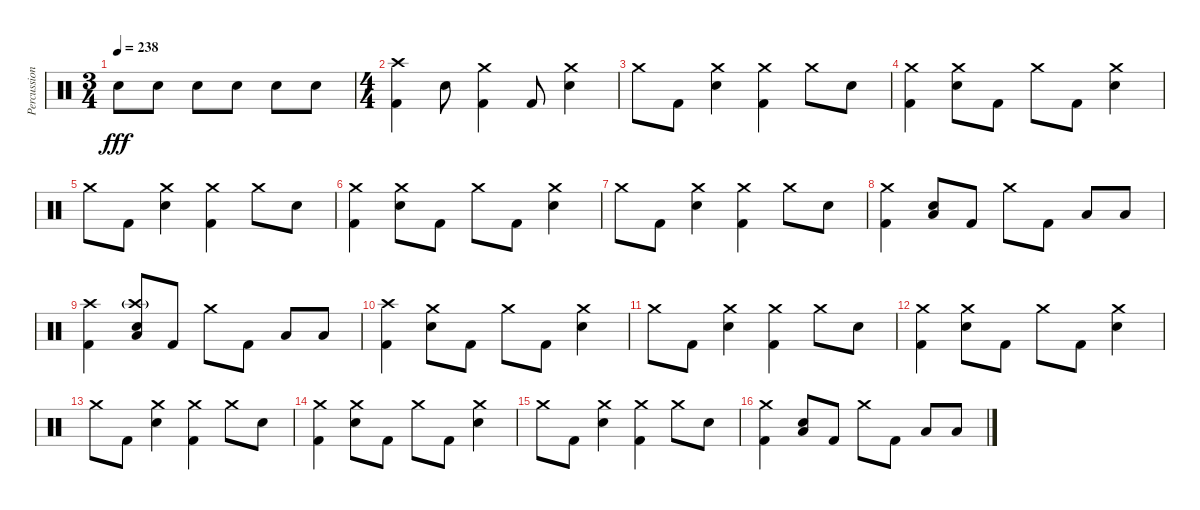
\track ("Percussion" "Percussion") {instrument percussion}
\staff {score}
\articulation defaults
\ts (3 4)
\tempo 238
\clef neutral
\ks c "Electric Snare (hit)".8{dy fff} "Electric Snare (hit)".8 "Electric Snare (hit)".8 "Electric Snare (hit)".8 "Electric Snare (hit)".8 "Electric Snare (hit)".8
|
\ts (4 4)
("Crash high (hit)" "Kick (hit) 2").4 "Electric Snare (hit)".8 ("Crash medium (hit)" "Kick (hit) 2").4 "Kick (hit) 2".8 ("Crash medium (hit)" "Electric Snare (hit)").4 |
"Crash medium (hit)".8 "Kick (hit) 2".8 ("Crash medium (hit)" "Electric Snare (hit)").4 ("Crash medium (hit)" "Kick (hit) 2").4 "Crash medium (hit)".8 "Electric Snare (hit)".8 |
("Crash medium (hit)" "Kick (hit) 2").4 ("Crash medium (hit)" "Electric Snare (hit)").8 "Kick (hit) 2".8 "Crash medium (hit)".8 "Kick (hit) 2".8 ("Crash medium (hit)" "Electric Snare (hit)").4 |
"Crash medium (hit)".8 "Kick (hit) 2".8 ("Crash medium (hit)" "Electric Snare (hit)").4 ("Crash medium (hit)" "Kick (hit) 2").4 "Crash medium (hit)".8 "Electric Snare (hit)".8 |
("Crash medium (hit)" "Kick (hit) 2").4 ("Crash medium (hit)" "Electric Snare (hit)").8 "Kick (hit) 2".8 "Crash medium (hit)".8 "Kick (hit) 2".8 ("Crash medium (hit)" "Electric Snare (hit)").4 |
"Crash medium (hit)".8 "Kick (hit) 2".8 ("Crash medium (hit)" "Electric Snare (hit)").4 ("Crash medium (hit)" "Kick (hit) 2").4 "Crash medium (hit)".8 "Electric Snare (hit)".8 |
("Crash medium (hit)" "Kick (hit) 2").4 ("Electric Snare (hit)" "Low Floor Tom (hit)").8 "Kick (hit) 2".8 "Crash medium (hit)".8 "Kick (hit) 2".8 "Low Tom (hit)".8 "Low Tom (hit)".8 |
("Crash high (hit)" "Kick (hit) 2").4 ("Crash high (hit)"{g} "Electric Snare (hit)" "Low Floor Tom (hit)").8 "Kick (hit) 2".8 "Crash medium (hit)".8 "Kick (hit) 2".8 "Low Tom (hit)".8 "Low Tom (hit)".8 |
("Crash high (hit)" "Kick (hit) 2").4 ("Crash medium (hit)" "Electric Snare (hit)").8 "Kick (hit) 2".8 "Crash medium (hit)".8 "Kick (hit) 2".8 ("Crash medium (hit)" "Electric Snare (hit)").4 |
"Crash medium (hit)".8 "Kick (hit) 2".8 ("Crash medium (hit)" "Electric Snare (hit)").4 ("Crash medium (hit)" "Kick (hit) 2").4 "Crash medium (hit)".8 "Electric Snare (hit)".8 |
("Crash medium (hit)" "Kick (hit) 2").4 ("Crash medium (hit)" "Electric Snare (hit)").8 "Kick (hit) 2".8 "Crash medium (hit)".8 "Kick (hit) 2".8 ("Crash medium (hit)" "Electric Snare (hit)").4 |
"Crash medium (hit)".8 "Kick (hit) 2".8 ("Crash medium (hit)" "Electric Snare (hit)").4 ("Crash medium (hit)" "Kick (hit) 2").4 "Crash medium (hit)".8 "Electric Snare (hit)".8 |
("Crash medium (hit)" "Kick (hit) 2").4 ("Crash medium (hit)" "Electric Snare (hit)").8 "Kick (hit) 2".8 "Crash medium (hit)".8 "Kick (hit) 2".8 ("Crash medium (hit)" "Electric Snare (hit)").4 |
"Crash medium (hit)".8 "Kick (hit) 2".8 ("Crash medium (hit)" "Electric Snare (hit)").4 ("Crash medium (hit)" "Kick (hit) 2").4 "Crash medium (hit)".8 "Electric Snare (hit)".8 |
("Crash medium (hit)" "Kick (hit) 2").4 ("Electric Snare (hit)" "Low Floor Tom (hit)").8 "Kick (hit) 2".8 "Crash medium (hit)".8 "Kick (hit) 2".8 "Low Tom (hit)".8 "Low Tom (hit)".8
